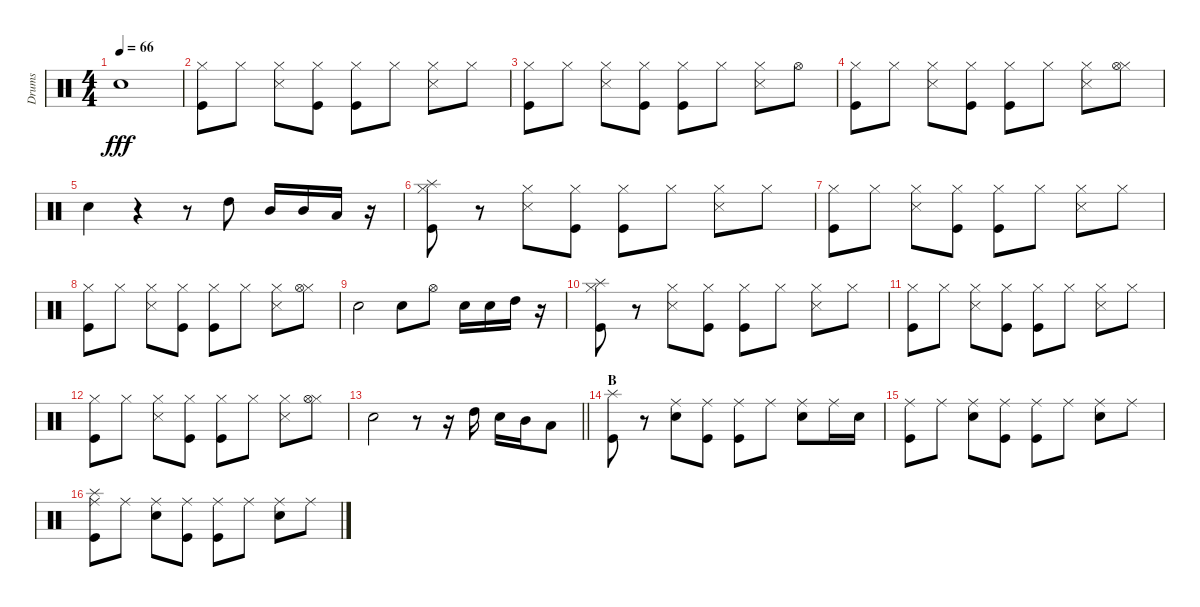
\track ("Drums" "Drums") {instrument percussion}
\staff {score}
\articulation defaults
\ts (4 4)
\tempo 66
\clef neutral
\ks c "Snare (hit) 2".1{dy fff}
|
("Hi-Hat (closed)" "Kick (hit)").8 "Hi-Hat (closed)".8 ("Hi-Hat (closed)" "Snare (side stick) 3").8 ("Hi-Hat (closed)" "Kick (hit)").8 ("Hi-Hat (closed)" "Kick (hit)").8 "Hi-Hat (closed)".8 ("Hi-Hat (closed)" "Snare (side stick) 3").8 "Hi-Hat (closed)".8 |
("Hi-Hat (closed)" "Kick (hit)").8 "Hi-Hat (closed)".8 ("Hi-Hat (closed)" "Snare (side stick) 3").8 ("Hi-Hat (closed)" "Kick (hit)").8 ("Hi-Hat (closed)" "Kick (hit)").8 "Hi-Hat (closed)".8 ("Hi-Hat (closed)" "Snare (side stick) 3").8 "Hi-Hat (open)".8 |
("Hi-Hat (closed)" "Kick (hit)").8 "Hi-Hat (closed)".8 ("Hi-Hat (closed)" "Snare (side stick) 3").8 ("Hi-Hat (closed)" "Kick (hit)").8 ("Hi-Hat (closed)" "Kick (hit)").8 "Hi-Hat (closed)".8 ("Hi-Hat (closed)" "Snare (side stick) 3").8 ("Hi-Hat (closed)" "Hi-Hat (open)").8 |
"Snare (hit) 2".4 r.4 r.8 "High Tom (hit)".8 "Mid Tom (hit)".16 "Mid Tom (hit)".16 "Low Tom (hit)".16 r.16 |
("Hi-Hat (closed)" "Splash (hit)" "Kick (hit)").8 r.8 ("Hi-Hat (closed)" "Snare (side stick) 3").8 ("Hi-Hat (closed)" "Kick (hit)").8 ("Hi-Hat (closed)" "Kick (hit)").8 "Hi-Hat (closed)".8 ("Hi-Hat (closed)" "Snare (side stick) 3").8 "Hi-Hat (closed)".8 |
("Hi-Hat (closed)" "Kick (hit)").8 "Hi-Hat (closed)".8 ("Hi-Hat (closed)" "Snare (side stick) 3").8 ("Hi-Hat (closed)" "Kick (hit)").8 ("Hi-Hat (closed)" "Kick (hit)").8 "Hi-Hat (closed)".8 ("Hi-Hat (closed)" "Snare (side stick) 3").8 "Hi-Hat (closed)".8 |
("Hi-Hat (closed)" "Kick (hit)").8 "Hi-Hat (closed)".8 ("Hi-Hat (closed)" "Snare (side stick) 3").8 ("Hi-Hat (closed)" "Kick (hit)").8 ("Hi-Hat (closed)" "Kick (hit)").8 "Hi-Hat (closed)".8 ("Hi-Hat (closed)" "Snare (side stick) 3").8 ("Hi-Hat (closed)" "Hi-Hat (open)").8 |
"Snare (hit) 2".2 "Snare (hit) 2".8 "Hi-Hat (open)".8 "Snare (hit) 2".16 "Snare (hit) 2".16 "High Tom (hit)".16 r.16 |
("Hi-Hat (closed)" "Splash (hit)" "Kick (hit)").8 r.8 ("Hi-Hat (closed)" "Snare (side stick) 3").8 ("Hi-Hat (closed)" "Kick (hit)").8 ("Hi-Hat (closed)" "Kick (hit)").8 "Hi-Hat (closed)".8 ("Hi-Hat (closed)" "Snare (side stick) 3").8 "Hi-Hat (closed)".8 |
("Hi-Hat (closed)" "Kick (hit)").8 "Hi-Hat (closed)".8 ("Hi-Hat (closed)" "Snare (side stick) 3").8 ("Hi-Hat (closed)" "Kick (hit)").8 ("Hi-Hat (closed)" "Kick (hit)").8 "Hi-Hat (closed)".8 ("Hi-Hat (closed)" "Snare (side stick) 3").8 "Hi-Hat (closed)".8 |
("Hi-Hat (closed)" "Kick (hit)").8 "Hi-Hat (closed)".8 ("Hi-Hat (closed)" "Snare (side stick) 3").8 ("Hi-Hat (closed)" "Kick (hit)").8 ("Hi-Hat (closed)" "Kick (hit)").8 "Hi-Hat (closed)".8 ("Hi-Hat (closed)" "Snare (side stick) 3").8 ("Hi-Hat (closed)" "Hi-Hat (open)").8 |
\barLineRight lightlight "Snare (hit) 2".2
r.8 r.16 "High Tom (hit)".16 "Snare (hit) 2".16 "Mid Tom (hit)".16 "Low Tom (hit)".8 |
\section ("" "B")
("Splash (hit)" "Kick (hit)").8 r.8 ("Ride (middle)" "Snare (hit) 2").8 ("Ride (middle)" "Kick (hit)").8 ("Ride (middle)" "Kick (hit)").8 "Ride (middle)".8 ("Ride (middle)" "Snare (hit) 2").8 "Ride (middle)".16 "Snare (hit) 2".16 |
("Ride (middle)" "Kick (hit)").8 "Ride (middle)".8 ("Ride (middle)" "Snare (hit) 2").8 ("Ride (middle)" "Kick (hit)").8 ("Ride (middle)" "Kick (hit)").8 "Ride (middle)".8 ("Ride (middle)" "Snare (hit) 2").8 "Ride (middle)".8 |
("Ride (middle)" "Splash (hit)" "Kick (hit)").8 "Ride (middle)".8 ("Ride (middle)" "Snare (hit) 2").8 ("Ride (middle)" "Kick (hit)").8 ("Ride (middle)" "Kick (hit)").8 "Ride (middle)".8 ("Ride (middle)" "Snare (hit) 2").8 "Ride (middle)".8
